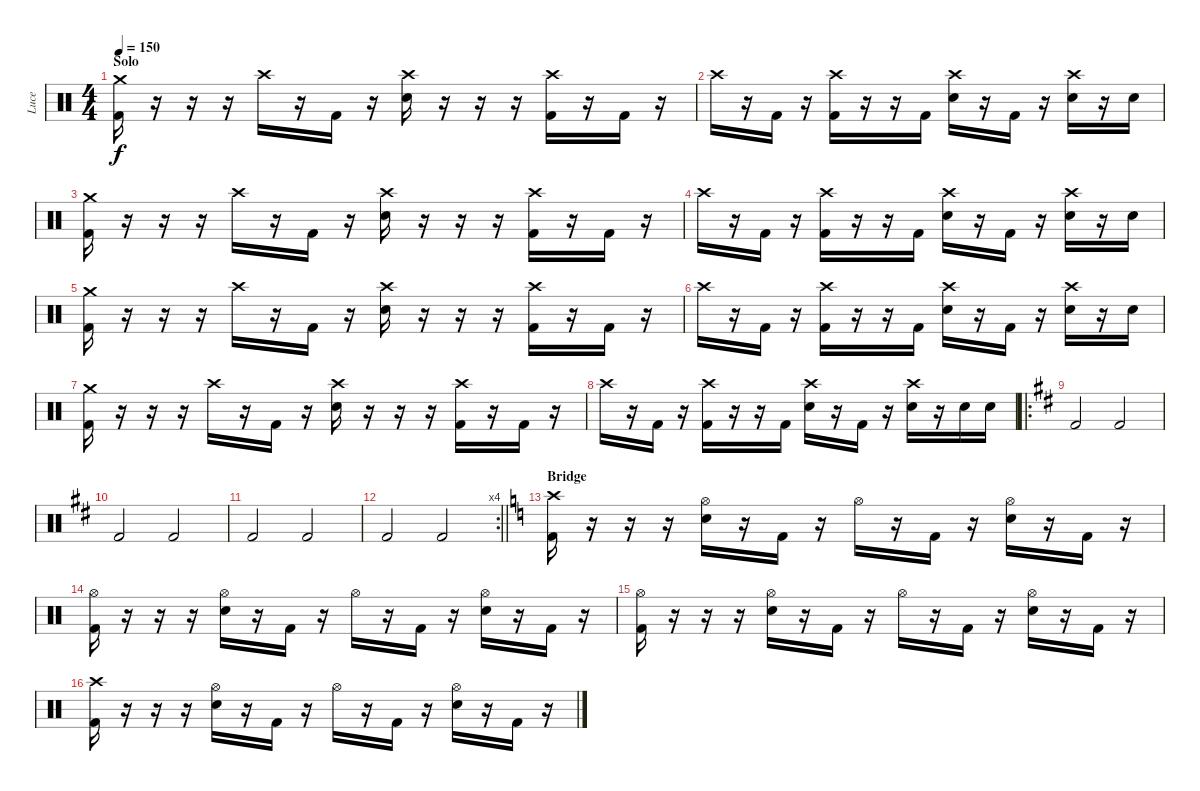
\track ("Luce" "Luce") {instrument percussion}
\staff {score}
\articulation defaults
\ts (4 4)
\section ("" "Solo")
\tempo 150
\clef neutral
\ks c
("Crash medium (hit)" "Kick (hit) 2").16{dy f} r.16 r.16 r.16 "Crash high (hit)".16 r.16 "Kick (hit) 2".16 r.16 ("Crash high (hit)" "Electric Snare (hit)").16 r.16 r.16 r.16 ("Crash high (hit)" "Kick (hit) 2").16 r.16 "Kick (hit) 2".16 r.16 |
"Crash high (hit)".16 r.16 "Kick (hit) 2".16 r.16 ("Crash high (hit)" "Kick (hit) 2").16 r.16 r.16 "Kick (hit) 2".16 ("Crash high (hit)" "Electric Snare (hit)").16 r.16 "Kick (hit) 2".16 r.16 ("Crash high (hit)" "Electric Snare (hit)").16 r.16 "Electric Snare (hit)".16 |
("Crash medium (hit)" "Kick (hit) 2").16 r.16 r.16 r.16 "Crash high (hit)".16 r.16 "Kick (hit) 2".16 r.16 ("Crash high (hit)" "Electric Snare (hit)").16 r.16 r.16 r.16 ("Crash high (hit)" "Kick (hit) 2").16 r.16 "Kick (hit) 2".16 r.16 |
"Crash high (hit)".16 r.16 "Kick (hit) 2".16 r.16 ("Crash high (hit)" "Kick (hit) 2").16 r.16 r.16 "Kick (hit) 2".16 ("Crash high (hit)" "Electric Snare (hit)").16 r.16 "Kick (hit) 2".16 r.16 ("Crash high (hit)" "Electric Snare (hit)").16 r.16 "Electric Snare (hit)".16 |
("Crash medium (hit)" "Kick (hit) 2").16 r.16 r.16 r.16 "Crash high (hit)".16 r.16 "Kick (hit) 2".16 r.16 ("Crash high (hit)" "Electric Snare (hit)").16 r.16 r.16 r.16 ("Crash high (hit)" "Kick (hit) 2").16 r.16 "Kick (hit) 2".16 r.16 |
"Crash high (hit)".16 r.16 "Kick (hit) 2".16 r.16 ("Crash high (hit)" "Kick (hit) 2").16 r.16 r.16 "Kick (hit) 2".16 ("Crash high (hit)" "Electric Snare (hit)").16 r.16 "Kick (hit) 2".16 r.16 ("Crash high (hit)" "Electric Snare (hit)").16 r.16 "Electric Snare (hit)".16 |
("Crash medium (hit)" "Kick (hit) 2").16 r.16 r.16 r.16 "Crash high (hit)".16 r.16 "Kick (hit) 2".16 r.16 ("Crash high (hit)" "Electric Snare (hit)").16 r.16 r.16 r.16 ("Crash high (hit)" "Kick (hit) 2").16 r.16 "Kick (hit) 2".16 r.16 |
"Crash high (hit)".16 r.16 "Kick (hit) 2".16 r.16 ("Crash high (hit)" "Kick (hit) 2").16 r.16 r.16 "Kick (hit) 2".16 ("Crash high (hit)" "Electric Snare (hit)").16 r.16 "Kick (hit) 2".16 r.16 ("Crash high (hit)" "Electric Snare (hit)").16 r.16 "Electric Snare (hit)".16 "Electric Snare (hit)".16 |
\ro
\ks d "Kick (hit) 2".2 "Kick (hit) 2".2
|
"Kick (hit) 2".2 "Kick (hit) 2".2 |
"Kick (hit) 2".2 "Kick (hit) 2".2 |
\rc 4
\barLineRight lightlight "Kick (hit) 2".2 "Kick (hit) 2".2
|
\section ("" "Bridge")
\ks c
("Crash high (hit)" "Kick (hit) 2").16 r.16 r.16 r.16 ("Hi-Hat (open)" "Electric Snare (hit)").16 r.16 "Kick (hit) 2".16 r.16 "Hi-Hat (open)".16 r.16 "Kick (hit) 2".16 r.16 ("Hi-Hat (open)" "Electric Snare (hit)").16 r.16 "Kick (hit) 2".16 r.16 |
("Hi-Hat (open)" "Kick (hit) 2").16 r.16 r.16 r.16 ("Hi-Hat (open)" "Electric Snare (hit)").16 r.16 "Kick (hit) 2".16 r.16 "Hi-Hat (open)".16 r.16 "Kick (hit) 2".16 r.16 ("Hi-Hat (open)" "Electric Snare (hit)").16 r.16 "Kick (hit) 2".16 r.16 |
("Hi-Hat (open)" "Kick (hit) 2").16 r.16 r.16 r.16 ("Hi-Hat (open)" "Electric Snare (hit)").16 r.16 "Kick (hit) 2".16 r.16 "Hi-Hat (open)".16 r.16 "Kick (hit) 2".16 r.16 ("Hi-Hat (open)" "Electric Snare (hit)").16 r.16 "Kick (hit) 2".16 r.16 |
("Crash high (hit)" "Kick (hit) 2").16 r.16 r.16 r.16 ("Hi-Hat (open)" "Electric Snare (hit)").16 r.16 "Kick (hit) 2".16 r.16 "Hi-Hat (open)".16 r.16 "Kick (hit) 2".16 r.16 ("Hi-Hat (open)" "Electric Snare (hit)").16 r.16 "Kick (hit) 2".16 r.16
